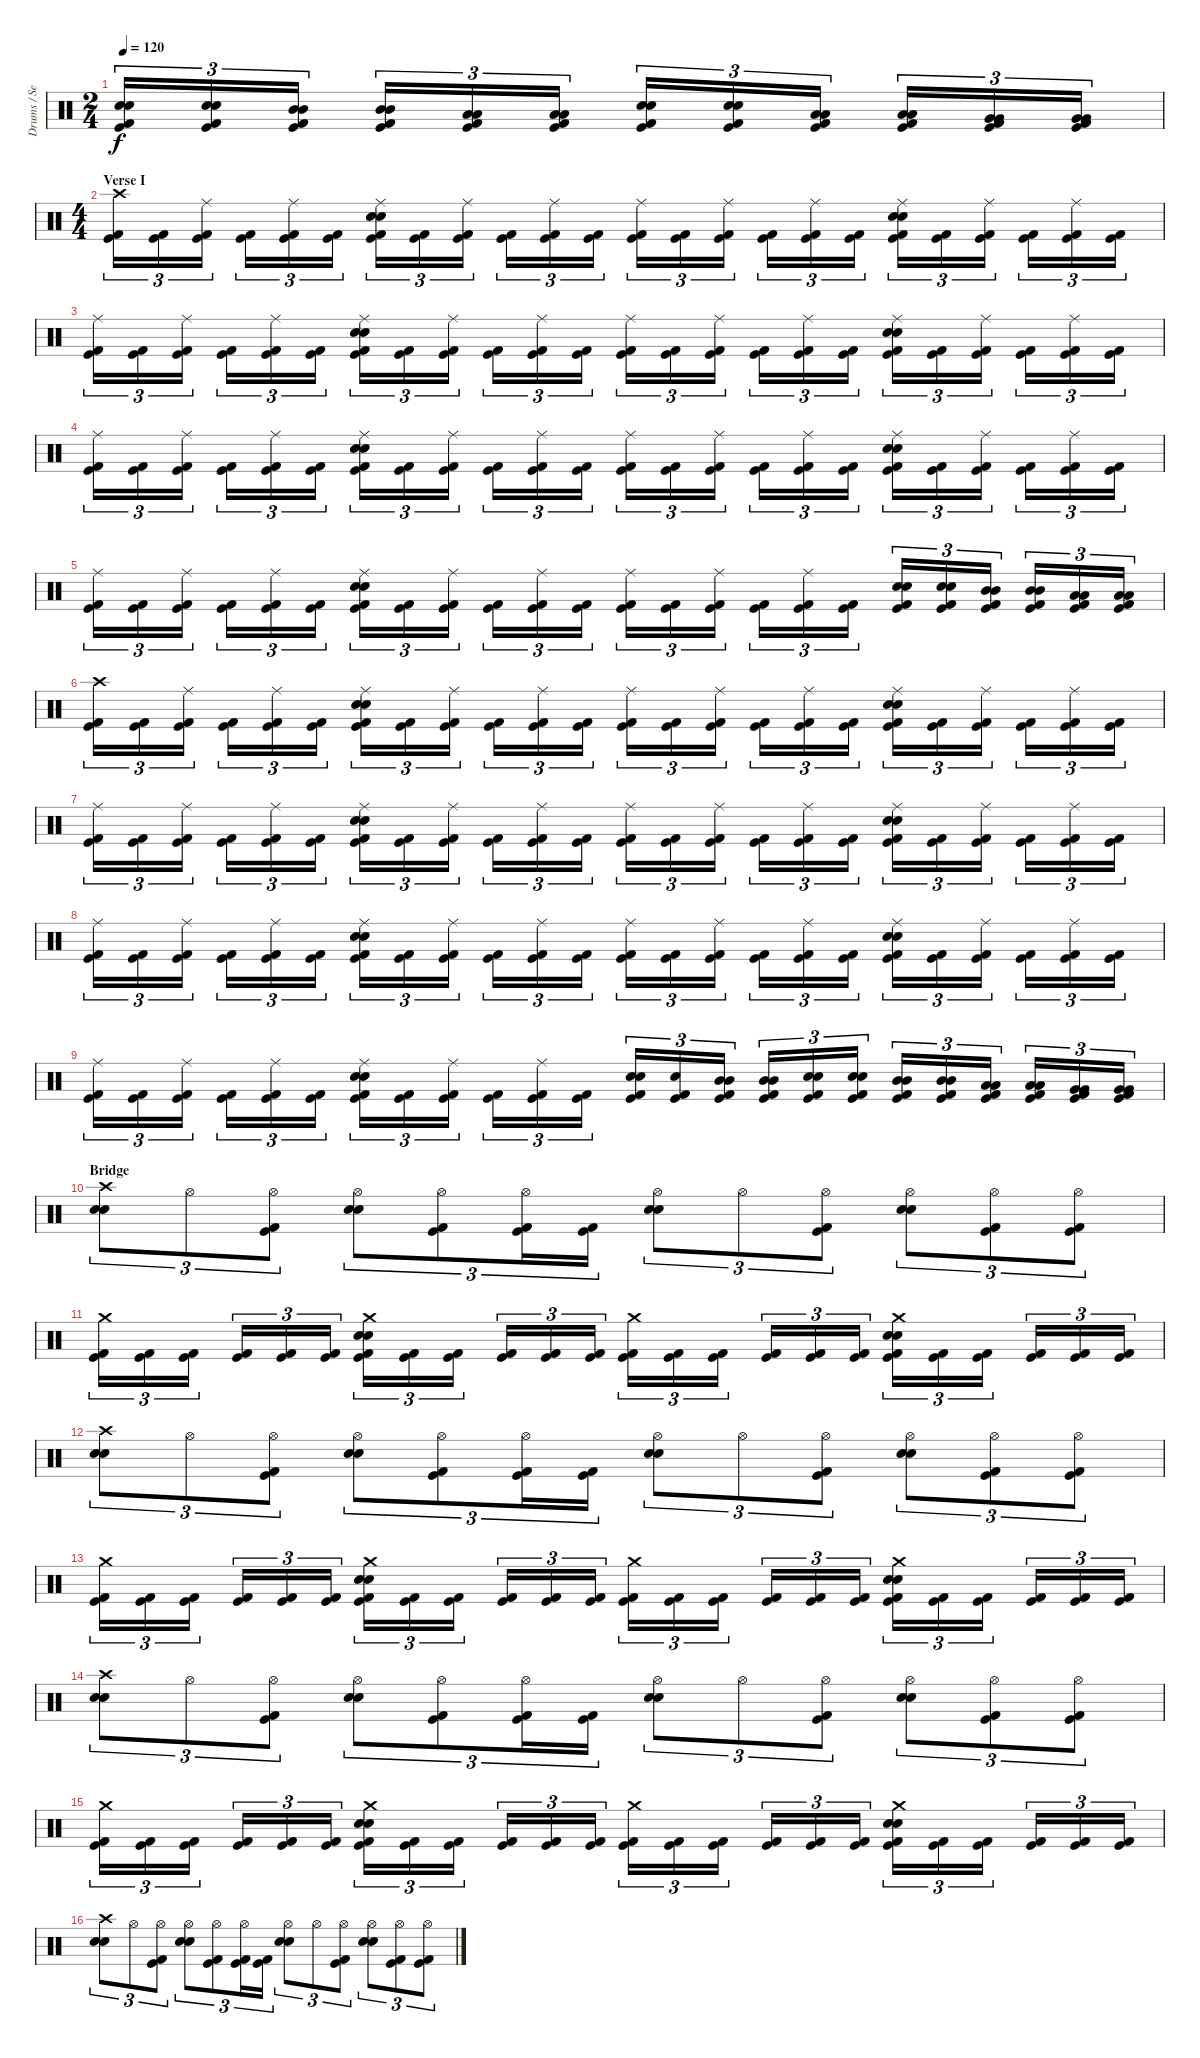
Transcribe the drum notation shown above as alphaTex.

\track ("Drums / Sean" "Drums / Se") {instrument percussion}
\staff {score}
\articulation defaults
\ts (2 4)
\tempo 120
\clef neutral
\ks c
("Electric Snare (hit)" "Snare (hit) 2" "Kick (hit)" "Kick (hit) 2").16{tu (3 2) dy f} ("Electric Snare (hit)" "Snare (hit) 2" "Kick (hit)" "Kick (hit) 2").16{tu (3 2)} ("Mid Tom (hit)" "Mid Tom (hit)" "Kick (hit)" "Kick (hit) 2").16{tu (3 2)} ("Mid Tom (hit)" "Mid Tom (hit)" "Kick (hit)" "Kick (hit) 2").16{tu (3 2)} ("Low Tom (hit)" "Low Tom (hit)" "Kick (hit)" "Kick (hit) 2").16{tu (3 2)} ("Low Tom (hit)" "Low Tom (hit)" "Kick (hit)" "Kick (hit) 2").16{tu (3 2)} ("Electric Snare (hit)" "Snare (hit) 2" "Kick (hit)" "Kick (hit) 2").16{tu (3 2)} ("Electric Snare (hit)" "Snare (hit) 2" "Kick (hit)" "Kick (hit) 2").16{tu (3 2)} ("Low Tom (hit)" "Low Tom (hit)" "Kick (hit)" "Kick (hit) 2").16{tu (3 2)} ("Low Tom (hit)" "Low Tom (hit)" "Kick (hit)" "Kick (hit) 2").16{tu (3 2)} ("Very Low Tom (hit)" "Very Low Tom (hit)" "Kick (hit)" "Kick (hit) 2").16{tu (3 2)} ("Very Low Tom (hit)" "Very Low Tom (hit)" "Kick (hit)" "Kick (hit) 2").16{tu (3 2)} |
\ts (4 4)
\section ("" "Verse I")
("Crash high (hit)" "Kick (hit)" "Kick (hit) 2").16{tu (3 2)} ("Kick (hit)" "Kick (hit) 2").16{tu (3 2)} ("Ride (middle)" "Kick (hit)" "Kick (hit) 2").16{tu (3 2)} ("Kick (hit)" "Kick (hit) 2").16{tu (3 2)} ("Ride (middle)" "Kick (hit)" "Kick (hit) 2").16{tu (3 2)} ("Kick (hit)" "Kick (hit) 2").16{tu (3 2)} ("Ride (middle)" "Electric Snare (hit)" "Snare (hit) 2" "Kick (hit)" "Kick (hit) 2").16{tu (3 2)} ("Kick (hit)" "Kick (hit) 2").16{tu (3 2)} ("Ride (middle)" "Kick (hit)" "Kick (hit) 2").16{tu (3 2)} ("Kick (hit)" "Kick (hit) 2").16{tu (3 2)} ("Ride (middle)" "Kick (hit)" "Kick (hit) 2").16{tu (3 2)} ("Kick (hit)" "Kick (hit) 2").16{tu (3 2)} ("Ride (middle)" "Kick (hit)" "Kick (hit) 2").16{tu (3 2)} ("Kick (hit)" "Kick (hit) 2").16{tu (3 2)} ("Ride (middle)" "Kick (hit)" "Kick (hit) 2").16{tu (3 2)} ("Kick (hit)" "Kick (hit) 2").16{tu (3 2)} ("Ride (middle)" "Kick (hit)" "Kick (hit) 2").16{tu (3 2)} ("Kick (hit)" "Kick (hit) 2").16{tu (3 2)} ("Ride (middle)" "Electric Snare (hit)" "Snare (hit) 2" "Kick (hit)" "Kick (hit) 2").16{tu (3 2)} ("Kick (hit)" "Kick (hit) 2").16{tu (3 2)} ("Ride (middle)" "Kick (hit)" "Kick (hit) 2").16{tu (3 2)} ("Kick (hit)" "Kick (hit) 2").16{tu (3 2)} ("Ride (middle)" "Kick (hit)" "Kick (hit) 2").16{tu (3 2)} ("Kick (hit)" "Kick (hit) 2").16{tu (3 2)} |
("Ride (middle)" "Kick (hit)" "Kick (hit) 2").16{tu (3 2)} ("Kick (hit)" "Kick (hit) 2").16{tu (3 2)} ("Ride (middle)" "Kick (hit)" "Kick (hit) 2").16{tu (3 2)} ("Kick (hit)" "Kick (hit) 2").16{tu (3 2)} ("Ride (middle)" "Kick (hit)" "Kick (hit) 2").16{tu (3 2)} ("Kick (hit)" "Kick (hit) 2").16{tu (3 2)} ("Ride (middle)" "Electric Snare (hit)" "Snare (hit) 2" "Kick (hit)" "Kick (hit) 2").16{tu (3 2)} ("Kick (hit)" "Kick (hit) 2").16{tu (3 2)} ("Ride (middle)" "Kick (hit)" "Kick (hit) 2").16{tu (3 2)} ("Kick (hit)" "Kick (hit) 2").16{tu (3 2)} ("Ride (middle)" "Kick (hit)" "Kick (hit) 2").16{tu (3 2)} ("Kick (hit)" "Kick (hit) 2").16{tu (3 2)} ("Ride (middle)" "Kick (hit)" "Kick (hit) 2").16{tu (3 2)} ("Kick (hit)" "Kick (hit) 2").16{tu (3 2)} ("Ride (middle)" "Kick (hit)" "Kick (hit) 2").16{tu (3 2)} ("Kick (hit)" "Kick (hit) 2").16{tu (3 2)} ("Ride (middle)" "Kick (hit)" "Kick (hit) 2").16{tu (3 2)} ("Kick (hit)" "Kick (hit) 2").16{tu (3 2)} ("Ride (middle)" "Electric Snare (hit)" "Snare (hit) 2" "Kick (hit)" "Kick (hit) 2").16{tu (3 2)} ("Kick (hit)" "Kick (hit) 2").16{tu (3 2)} ("Ride (middle)" "Kick (hit)" "Kick (hit) 2").16{tu (3 2)} ("Kick (hit)" "Kick (hit) 2").16{tu (3 2)} ("Ride (middle)" "Kick (hit)" "Kick (hit) 2").16{tu (3 2)} ("Kick (hit)" "Kick (hit) 2").16{tu (3 2)} |
("Ride (middle)" "Kick (hit)" "Kick (hit) 2").16{tu (3 2)} ("Kick (hit)" "Kick (hit) 2").16{tu (3 2)} ("Ride (middle)" "Kick (hit)" "Kick (hit) 2").16{tu (3 2)} ("Kick (hit)" "Kick (hit) 2").16{tu (3 2)} ("Ride (middle)" "Kick (hit)" "Kick (hit) 2").16{tu (3 2)} ("Kick (hit)" "Kick (hit) 2").16{tu (3 2)} ("Ride (middle)" "Electric Snare (hit)" "Snare (hit) 2" "Kick (hit)" "Kick (hit) 2").16{tu (3 2)} ("Kick (hit)" "Kick (hit) 2").16{tu (3 2)} ("Ride (middle)" "Kick (hit)" "Kick (hit) 2").16{tu (3 2)} ("Kick (hit)" "Kick (hit) 2").16{tu (3 2)} ("Ride (middle)" "Kick (hit)" "Kick (hit) 2").16{tu (3 2)} ("Kick (hit)" "Kick (hit) 2").16{tu (3 2)} ("Ride (middle)" "Kick (hit)" "Kick (hit) 2").16{tu (3 2)} ("Kick (hit)" "Kick (hit) 2").16{tu (3 2)} ("Ride (middle)" "Kick (hit)" "Kick (hit) 2").16{tu (3 2)} ("Kick (hit)" "Kick (hit) 2").16{tu (3 2)} ("Ride (middle)" "Kick (hit)" "Kick (hit) 2").16{tu (3 2)} ("Kick (hit)" "Kick (hit) 2").16{tu (3 2)} ("Ride (middle)" "Electric Snare (hit)" "Snare (hit) 2" "Kick (hit)" "Kick (hit) 2").16{tu (3 2)} ("Kick (hit)" "Kick (hit) 2").16{tu (3 2)} ("Ride (middle)" "Kick (hit)" "Kick (hit) 2").16{tu (3 2)} ("Kick (hit)" "Kick (hit) 2").16{tu (3 2)} ("Ride (middle)" "Kick (hit)" "Kick (hit) 2").16{tu (3 2)} ("Kick (hit)" "Kick (hit) 2").16{tu (3 2)} |
("Ride (middle)" "Kick (hit)" "Kick (hit) 2").16{tu (3 2)} ("Kick (hit)" "Kick (hit) 2").16{tu (3 2)} ("Ride (middle)" "Kick (hit)" "Kick (hit) 2").16{tu (3 2)} ("Kick (hit)" "Kick (hit) 2").16{tu (3 2)} ("Ride (middle)" "Kick (hit)" "Kick (hit) 2").16{tu (3 2)} ("Kick (hit)" "Kick (hit) 2").16{tu (3 2)} ("Ride (middle)" "Electric Snare (hit)" "Snare (hit) 2" "Kick (hit)" "Kick (hit) 2").16{tu (3 2)} ("Kick (hit)" "Kick (hit) 2").16{tu (3 2)} ("Ride (middle)" "Kick (hit)" "Kick (hit) 2").16{tu (3 2)} ("Kick (hit)" "Kick (hit) 2").16{tu (3 2)} ("Ride (middle)" "Kick (hit)" "Kick (hit) 2").16{tu (3 2)} ("Kick (hit)" "Kick (hit) 2").16{tu (3 2)} ("Ride (middle)" "Kick (hit)" "Kick (hit) 2").16{tu (3 2)} ("Kick (hit)" "Kick (hit) 2").16{tu (3 2)} ("Ride (middle)" "Kick (hit)" "Kick (hit) 2").16{tu (3 2)} ("Kick (hit)" "Kick (hit) 2").16{tu (3 2)} ("Ride (middle)" "Kick (hit)" "Kick (hit) 2").16{tu (3 2)} ("Kick (hit)" "Kick (hit) 2").16{tu (3 2)} ("Electric Snare (hit)" "Snare (hit) 2" "Kick (hit)" "Kick (hit) 2").16{tu (3 2)} ("Electric Snare (hit)" "Snare (hit) 2" "Kick (hit)" "Kick (hit) 2").16{tu (3 2)} ("Mid Tom (hit)" "Mid Tom (hit)" "Kick (hit)" "Kick (hit) 2").16{tu (3 2)} ("Mid Tom (hit)" "Mid Tom (hit)" "Kick (hit)" "Kick (hit) 2").16{tu (3 2)} ("Low Tom (hit)" "Low Tom (hit)" "Kick (hit)" "Kick (hit) 2").16{tu (3 2)} ("Low Tom (hit)" "Low Tom (hit)" "Kick (hit)" "Kick (hit) 2").16{tu (3 2)} |
("Crash high (hit)" "Kick (hit)" "Kick (hit) 2").16{tu (3 2)} ("Kick (hit)" "Kick (hit) 2").16{tu (3 2)} ("Ride (middle)" "Kick (hit)" "Kick (hit) 2").16{tu (3 2)} ("Kick (hit)" "Kick (hit) 2").16{tu (3 2)} ("Ride (middle)" "Kick (hit)" "Kick (hit) 2").16{tu (3 2)} ("Kick (hit)" "Kick (hit) 2").16{tu (3 2)} ("Ride (middle)" "Electric Snare (hit)" "Snare (hit) 2" "Kick (hit)" "Kick (hit) 2").16{tu (3 2)} ("Kick (hit)" "Kick (hit) 2").16{tu (3 2)} ("Ride (middle)" "Kick (hit)" "Kick (hit) 2").16{tu (3 2)} ("Kick (hit)" "Kick (hit) 2").16{tu (3 2)} ("Ride (middle)" "Kick (hit)" "Kick (hit) 2").16{tu (3 2)} ("Kick (hit)" "Kick (hit) 2").16{tu (3 2)} ("Ride (middle)" "Kick (hit)" "Kick (hit) 2").16{tu (3 2)} ("Kick (hit)" "Kick (hit) 2").16{tu (3 2)} ("Ride (middle)" "Kick (hit)" "Kick (hit) 2").16{tu (3 2)} ("Kick (hit)" "Kick (hit) 2").16{tu (3 2)} ("Ride (middle)" "Kick (hit)" "Kick (hit) 2").16{tu (3 2)} ("Kick (hit)" "Kick (hit) 2").16{tu (3 2)} ("Ride (middle)" "Electric Snare (hit)" "Snare (hit) 2" "Kick (hit)" "Kick (hit) 2").16{tu (3 2)} ("Kick (hit)" "Kick (hit) 2").16{tu (3 2)} ("Ride (middle)" "Kick (hit)" "Kick (hit) 2").16{tu (3 2)} ("Kick (hit)" "Kick (hit) 2").16{tu (3 2)} ("Ride (middle)" "Kick (hit)" "Kick (hit) 2").16{tu (3 2)} ("Kick (hit)" "Kick (hit) 2").16{tu (3 2)} |
("Ride (middle)" "Kick (hit)" "Kick (hit) 2").16{tu (3 2)} ("Kick (hit)" "Kick (hit) 2").16{tu (3 2)} ("Ride (middle)" "Kick (hit)" "Kick (hit) 2").16{tu (3 2)} ("Kick (hit)" "Kick (hit) 2").16{tu (3 2)} ("Ride (middle)" "Kick (hit)" "Kick (hit) 2").16{tu (3 2)} ("Kick (hit)" "Kick (hit) 2").16{tu (3 2)} ("Ride (middle)" "Electric Snare (hit)" "Snare (hit) 2" "Kick (hit)" "Kick (hit) 2").16{tu (3 2)} ("Kick (hit)" "Kick (hit) 2").16{tu (3 2)} ("Ride (middle)" "Kick (hit)" "Kick (hit) 2").16{tu (3 2)} ("Kick (hit)" "Kick (hit) 2").16{tu (3 2)} ("Ride (middle)" "Kick (hit)" "Kick (hit) 2").16{tu (3 2)} ("Kick (hit)" "Kick (hit) 2").16{tu (3 2)} ("Ride (middle)" "Kick (hit)" "Kick (hit) 2").16{tu (3 2)} ("Kick (hit)" "Kick (hit) 2").16{tu (3 2)} ("Ride (middle)" "Kick (hit)" "Kick (hit) 2").16{tu (3 2)} ("Kick (hit)" "Kick (hit) 2").16{tu (3 2)} ("Ride (middle)" "Kick (hit)" "Kick (hit) 2").16{tu (3 2)} ("Kick (hit)" "Kick (hit) 2").16{tu (3 2)} ("Ride (middle)" "Electric Snare (hit)" "Snare (hit) 2" "Kick (hit)" "Kick (hit) 2").16{tu (3 2)} ("Kick (hit)" "Kick (hit) 2").16{tu (3 2)} ("Ride (middle)" "Kick (hit)" "Kick (hit) 2").16{tu (3 2)} ("Kick (hit)" "Kick (hit) 2").16{tu (3 2)} ("Ride (middle)" "Kick (hit)" "Kick (hit) 2").16{tu (3 2)} ("Kick (hit)" "Kick (hit) 2").16{tu (3 2)} |
("Ride (middle)" "Kick (hit)" "Kick (hit) 2").16{tu (3 2)} ("Kick (hit)" "Kick (hit) 2").16{tu (3 2)} ("Ride (middle)" "Kick (hit)" "Kick (hit) 2").16{tu (3 2)} ("Kick (hit)" "Kick (hit) 2").16{tu (3 2)} ("Ride (middle)" "Kick (hit)" "Kick (hit) 2").16{tu (3 2)} ("Kick (hit)" "Kick (hit) 2").16{tu (3 2)} ("Ride (middle)" "Electric Snare (hit)" "Snare (hit) 2" "Kick (hit)" "Kick (hit) 2").16{tu (3 2)} ("Kick (hit)" "Kick (hit) 2").16{tu (3 2)} ("Ride (middle)" "Kick (hit)" "Kick (hit) 2").16{tu (3 2)} ("Kick (hit)" "Kick (hit) 2").16{tu (3 2)} ("Ride (middle)" "Kick (hit)" "Kick (hit) 2").16{tu (3 2)} ("Kick (hit)" "Kick (hit) 2").16{tu (3 2)} ("Ride (middle)" "Kick (hit)" "Kick (hit) 2").16{tu (3 2)} ("Kick (hit)" "Kick (hit) 2").16{tu (3 2)} ("Ride (middle)" "Kick (hit)" "Kick (hit) 2").16{tu (3 2)} ("Kick (hit)" "Kick (hit) 2").16{tu (3 2)} ("Ride (middle)" "Kick (hit)" "Kick (hit) 2").16{tu (3 2)} ("Kick (hit)" "Kick (hit) 2").16{tu (3 2)} ("Ride (middle)" "Electric Snare (hit)" "Snare (hit) 2" "Kick (hit)" "Kick (hit) 2").16{tu (3 2)} ("Kick (hit)" "Kick (hit) 2").16{tu (3 2)} ("Ride (middle)" "Kick (hit)" "Kick (hit) 2").16{tu (3 2)} ("Kick (hit)" "Kick (hit) 2").16{tu (3 2)} ("Ride (middle)" "Kick (hit)" "Kick (hit) 2").16{tu (3 2)} ("Kick (hit)" "Kick (hit) 2").16{tu (3 2)} |
("Ride (middle)" "Kick (hit)" "Kick (hit) 2").16{tu (3 2)} ("Kick (hit)" "Kick (hit) 2").16{tu (3 2)} ("Ride (middle)" "Kick (hit)" "Kick (hit) 2").16{tu (3 2)} ("Kick (hit)" "Kick (hit) 2").16{tu (3 2)} ("Ride (middle)" "Kick (hit)" "Kick (hit) 2").16{tu (3 2)} ("Kick (hit)" "Kick (hit) 2").16{tu (3 2)} ("Ride (middle)" "Electric Snare (hit)" "Snare (hit) 2" "Kick (hit)" "Kick (hit) 2").16{tu (3 2)} ("Kick (hit)" "Kick (hit) 2").16{tu (3 2)} ("Ride (middle)" "Kick (hit)" "Kick (hit) 2").16{tu (3 2)} ("Kick (hit)" "Kick (hit) 2").16{tu (3 2)} ("Ride (middle)" "Kick (hit)" "Kick (hit) 2").16{tu (3 2)} ("Kick (hit)" "Kick (hit) 2").16{tu (3 2)} ("Electric Snare (hit)" "Snare (hit) 2" "Kick (hit)" "Kick (hit) 2").16{tu (3 2)} ("Electric Snare (hit)" "Kick (hit)" "Kick (hit) 2").16{tu (3 2)} ("Mid Tom (hit)" "Mid Tom (hit)" "Kick (hit)" "Kick (hit) 2").16{tu (3 2)} ("Mid Tom (hit)" "Mid Tom (hit)" "Kick (hit)" "Kick (hit) 2").16{tu (3 2)} ("Electric Snare (hit)" "Snare (hit) 2" "Kick (hit)" "Kick (hit) 2").16{tu (3 2)} ("Electric Snare (hit)" "Snare (hit) 2" "Kick (hit)" "Kick (hit) 2").16{tu (3 2)} ("Mid Tom (hit)" "Mid Tom (hit)" "Kick (hit)" "Kick (hit) 2").16{tu (3 2)} ("Mid Tom (hit)" "Mid Tom (hit)" "Kick (hit)" "Kick (hit) 2").16{tu (3 2)} ("Low Tom (hit)" "Low Tom (hit)" "Kick (hit)" "Kick (hit) 2").16{tu (3 2)} ("Low Tom (hit)" "Low Tom (hit)" "Kick (hit)" "Kick (hit) 2").16{tu (3 2)} ("Very Low Tom (hit)" "Very Low Tom (hit)" "Kick (hit)" "Kick (hit) 2").16{tu (3 2)} ("Very Low Tom (hit)" "Very Low Tom (hit)" "Kick (hit)" "Kick (hit) 2").16{tu (3 2)} |
\section ("" "Bridge")
("Crash high (hit)" "Electric Snare (hit)" "Snare (hit) 2").8{tu (3 2)} "Hi-Hat (open)".8{tu (3 2)} ("Hi-Hat (open)" "Kick (hit)" "Kick (hit) 2").8{tu (3 2)} ("Hi-Hat (open)" "Electric Snare (hit)" "Snare (hit) 2").8{tu (3 2)} ("Hi-Hat (open)" "Kick (hit)" "Kick (hit) 2").8{tu (3 2)} ("Hi-Hat (open)" "Kick (hit)" "Kick (hit) 2").16{tu (3 2)} ("Kick (hit)" "Kick (hit) 2").16{tu (3 2)} ("Hi-Hat (open)" "Electric Snare (hit)" "Snare (hit) 2").8{tu (3 2)} "Hi-Hat (open)".8{tu (3 2)} ("Hi-Hat (open)" "Kick (hit)" "Kick (hit) 2").8{tu (3 2)} ("Hi-Hat (open)" "Electric Snare (hit)" "Snare (hit) 2").8{tu (3 2)} ("Hi-Hat (open)" "Kick (hit)" "Kick (hit) 2").8{tu (3 2)} ("Hi-Hat (open)" "Kick (hit)" "Kick (hit) 2").8{tu (3 2)} |
("Crash medium (hit)" "Kick (hit)" "Kick (hit) 2").16{tu (3 2)} ("Kick (hit)" "Kick (hit) 2").16{tu (3 2)} ("Kick (hit)" "Kick (hit) 2").16{tu (3 2)} ("Kick (hit)" "Kick (hit) 2").16{tu (3 2)} ("Kick (hit)" "Kick (hit) 2").16{tu (3 2)} ("Kick (hit)" "Kick (hit) 2").16{tu (3 2)} ("Crash medium (hit)" "Electric Snare (hit)" "Snare (hit) 2" "Kick (hit)" "Kick (hit) 2").16{tu (3 2)} ("Kick (hit)" "Kick (hit) 2").16{tu (3 2)} ("Kick (hit)" "Kick (hit) 2").16{tu (3 2)} ("Kick (hit)" "Kick (hit) 2").16{tu (3 2)} ("Kick (hit)" "Kick (hit) 2").16{tu (3 2)} ("Kick (hit)" "Kick (hit) 2").16{tu (3 2)} ("Crash medium (hit)" "Kick (hit)" "Kick (hit) 2").16{tu (3 2)} ("Kick (hit)" "Kick (hit) 2").16{tu (3 2)} ("Kick (hit)" "Kick (hit) 2").16{tu (3 2)} ("Kick (hit)" "Kick (hit) 2").16{tu (3 2)} ("Kick (hit)" "Kick (hit) 2").16{tu (3 2)} ("Kick (hit)" "Kick (hit) 2").16{tu (3 2)} ("Crash medium (hit)" "Electric Snare (hit)" "Snare (hit) 2" "Kick (hit)" "Kick (hit) 2").16{tu (3 2)} ("Kick (hit)" "Kick (hit) 2").16{tu (3 2)} ("Kick (hit)" "Kick (hit) 2").16{tu (3 2)} ("Kick (hit)" "Kick (hit) 2").16{tu (3 2)} ("Kick (hit)" "Kick (hit) 2").16{tu (3 2)} ("Kick (hit)" "Kick (hit) 2").16{tu (3 2)} |
("Crash high (hit)" "Electric Snare (hit)" "Snare (hit) 2").8{tu (3 2)} "Hi-Hat (open)".8{tu (3 2)} ("Hi-Hat (open)" "Kick (hit)" "Kick (hit) 2").8{tu (3 2)} ("Hi-Hat (open)" "Electric Snare (hit)" "Snare (hit) 2").8{tu (3 2)} ("Hi-Hat (open)" "Kick (hit)" "Kick (hit) 2").8{tu (3 2)} ("Hi-Hat (open)" "Kick (hit)" "Kick (hit) 2").16{tu (3 2)} ("Kick (hit)" "Kick (hit) 2").16{tu (3 2)} ("Hi-Hat (open)" "Electric Snare (hit)" "Snare (hit) 2").8{tu (3 2)} "Hi-Hat (open)".8{tu (3 2)} ("Hi-Hat (open)" "Kick (hit)" "Kick (hit) 2").8{tu (3 2)} ("Hi-Hat (open)" "Electric Snare (hit)" "Snare (hit) 2").8{tu (3 2)} ("Hi-Hat (open)" "Kick (hit)" "Kick (hit) 2").8{tu (3 2)} ("Hi-Hat (open)" "Kick (hit)" "Kick (hit) 2").8{tu (3 2)} |
("Crash medium (hit)" "Kick (hit)" "Kick (hit) 2").16{tu (3 2)} ("Kick (hit)" "Kick (hit) 2").16{tu (3 2)} ("Kick (hit)" "Kick (hit) 2").16{tu (3 2)} ("Kick (hit)" "Kick (hit) 2").16{tu (3 2)} ("Kick (hit)" "Kick (hit) 2").16{tu (3 2)} ("Kick (hit)" "Kick (hit) 2").16{tu (3 2)} ("Crash medium (hit)" "Electric Snare (hit)" "Snare (hit) 2" "Kick (hit)" "Kick (hit) 2").16{tu (3 2)} ("Kick (hit)" "Kick (hit) 2").16{tu (3 2)} ("Kick (hit)" "Kick (hit) 2").16{tu (3 2)} ("Kick (hit)" "Kick (hit) 2").16{tu (3 2)} ("Kick (hit)" "Kick (hit) 2").16{tu (3 2)} ("Kick (hit)" "Kick (hit) 2").16{tu (3 2)} ("Crash medium (hit)" "Kick (hit)" "Kick (hit) 2").16{tu (3 2)} ("Kick (hit)" "Kick (hit) 2").16{tu (3 2)} ("Kick (hit)" "Kick (hit) 2").16{tu (3 2)} ("Kick (hit)" "Kick (hit) 2").16{tu (3 2)} ("Kick (hit)" "Kick (hit) 2").16{tu (3 2)} ("Kick (hit)" "Kick (hit) 2").16{tu (3 2)} ("Crash medium (hit)" "Electric Snare (hit)" "Snare (hit) 2" "Kick (hit)" "Kick (hit) 2").16{tu (3 2)} ("Kick (hit)" "Kick (hit) 2").16{tu (3 2)} ("Kick (hit)" "Kick (hit) 2").16{tu (3 2)} ("Kick (hit)" "Kick (hit) 2").16{tu (3 2)} ("Kick (hit)" "Kick (hit) 2").16{tu (3 2)} ("Kick (hit)" "Kick (hit) 2").16{tu (3 2)} |
("Crash high (hit)" "Electric Snare (hit)" "Snare (hit) 2").8{tu (3 2)} "Hi-Hat (open)".8{tu (3 2)} ("Hi-Hat (open)" "Kick (hit)" "Kick (hit) 2").8{tu (3 2)} ("Hi-Hat (open)" "Electric Snare (hit)" "Snare (hit) 2").8{tu (3 2)} ("Hi-Hat (open)" "Kick (hit)" "Kick (hit) 2").8{tu (3 2)} ("Hi-Hat (open)" "Kick (hit)" "Kick (hit) 2").16{tu (3 2)} ("Kick (hit)" "Kick (hit) 2").16{tu (3 2)} ("Hi-Hat (open)" "Electric Snare (hit)" "Snare (hit) 2").8{tu (3 2)} "Hi-Hat (open)".8{tu (3 2)} ("Hi-Hat (open)" "Kick (hit)" "Kick (hit) 2").8{tu (3 2)} ("Hi-Hat (open)" "Electric Snare (hit)" "Snare (hit) 2").8{tu (3 2)} ("Hi-Hat (open)" "Kick (hit)" "Kick (hit) 2").8{tu (3 2)} ("Hi-Hat (open)" "Kick (hit)" "Kick (hit) 2").8{tu (3 2)} |
("Crash medium (hit)" "Kick (hit)" "Kick (hit) 2").16{tu (3 2)} ("Kick (hit)" "Kick (hit) 2").16{tu (3 2)} ("Kick (hit)" "Kick (hit) 2").16{tu (3 2)} ("Kick (hit)" "Kick (hit) 2").16{tu (3 2)} ("Kick (hit)" "Kick (hit) 2").16{tu (3 2)} ("Kick (hit)" "Kick (hit) 2").16{tu (3 2)} ("Crash medium (hit)" "Electric Snare (hit)" "Snare (hit) 2" "Kick (hit)" "Kick (hit) 2").16{tu (3 2)} ("Kick (hit)" "Kick (hit) 2").16{tu (3 2)} ("Kick (hit)" "Kick (hit) 2").16{tu (3 2)} ("Kick (hit)" "Kick (hit) 2").16{tu (3 2)} ("Kick (hit)" "Kick (hit) 2").16{tu (3 2)} ("Kick (hit)" "Kick (hit) 2").16{tu (3 2)} ("Crash medium (hit)" "Kick (hit)" "Kick (hit) 2").16{tu (3 2)} ("Kick (hit)" "Kick (hit) 2").16{tu (3 2)} ("Kick (hit)" "Kick (hit) 2").16{tu (3 2)} ("Kick (hit)" "Kick (hit) 2").16{tu (3 2)} ("Kick (hit)" "Kick (hit) 2").16{tu (3 2)} ("Kick (hit)" "Kick (hit) 2").16{tu (3 2)} ("Crash medium (hit)" "Electric Snare (hit)" "Snare (hit) 2" "Kick (hit)" "Kick (hit) 2").16{tu (3 2)} ("Kick (hit)" "Kick (hit) 2").16{tu (3 2)} ("Kick (hit)" "Kick (hit) 2").16{tu (3 2)} ("Kick (hit)" "Kick (hit) 2").16{tu (3 2)} ("Kick (hit)" "Kick (hit) 2").16{tu (3 2)} ("Kick (hit)" "Kick (hit) 2").16{tu (3 2)} |
("Crash high (hit)" "Electric Snare (hit)" "Snare (hit) 2").8{tu (3 2)} "Hi-Hat (open)".8{tu (3 2)} ("Hi-Hat (open)" "Kick (hit)" "Kick (hit) 2").8{tu (3 2)} ("Hi-Hat (open)" "Electric Snare (hit)" "Snare (hit) 2").8{tu (3 2)} ("Hi-Hat (open)" "Kick (hit)" "Kick (hit) 2").8{tu (3 2)} ("Hi-Hat (open)" "Kick (hit)" "Kick (hit) 2").16{tu (3 2)} ("Kick (hit)" "Kick (hit) 2").16{tu (3 2)} ("Hi-Hat (open)" "Electric Snare (hit)" "Snare (hit) 2").8{tu (3 2)} "Hi-Hat (open)".8{tu (3 2)} ("Hi-Hat (open)" "Kick (hit)" "Kick (hit) 2").8{tu (3 2)} ("Hi-Hat (open)" "Electric Snare (hit)" "Snare (hit) 2").8{tu (3 2)} ("Hi-Hat (open)" "Kick (hit)" "Kick (hit) 2").8{tu (3 2)} ("Hi-Hat (open)" "Kick (hit)" "Kick (hit) 2").8{tu (3 2)}
